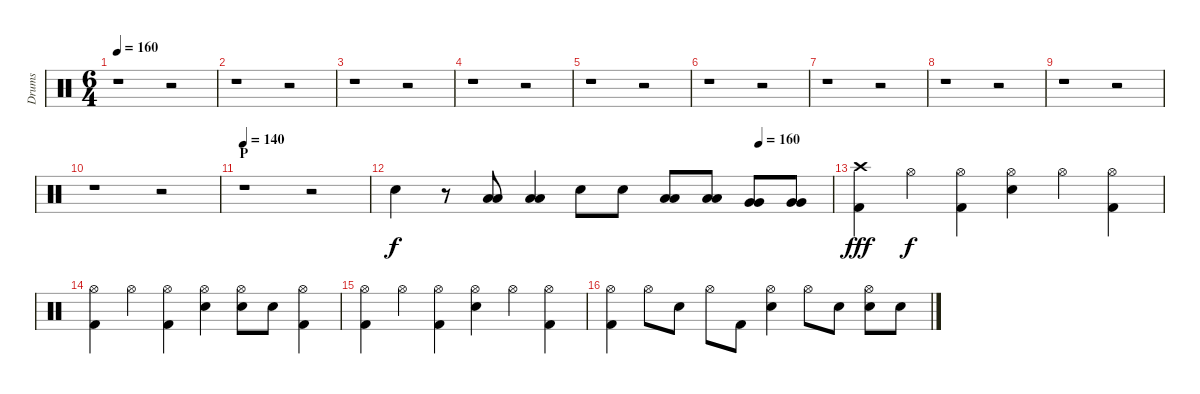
\track ("Drums" "Drums") {instrument percussion}
\staff {score}
\articulation defaults
\ts (6 4)
\tempo 160
\clef neutral
\ks c
r.1{dy f} r.2 |
r.1 r.2 |
r.1 r.2 |
r.1 r.2 |
r.1 r.2 |
r.1 r.2 |
r.1 r.2 |
r.1 r.2 |
r.1 r.2 |
r.1 r.2 |
\section ("" "P")
\tempo 140
r.1 r.2 |
\tempo (160 0.8333333333333334)
"Electric Snare (hit)".4 r.8 ("Low Tom (hit)" "Low Tom (hit)").8 ("Low Tom (hit)" "Low Tom (hit)").4 "Electric Snare (hit)".8 "Electric Snare (hit)".8 ("Low Tom (hit)" "Low Tom (hit)").8 ("Low Tom (hit)" "Low Tom (hit)").8 ("Very Low Tom (hit)" "Very Low Tom (hit)").8 ("Very Low Tom (hit)" "Very Low Tom (hit)").8 |
("Kick (hit) 2" "Crash high (hit)").4{dy fff} "Hi-Hat (open)".4{dy f} ("Kick (hit) 2" "Hi-Hat (open)").4 ("Electric Snare (hit)" "Hi-Hat (open)").4 "Hi-Hat (open)".4 ("Kick (hit) 2" "Hi-Hat (open)").4 |
("Kick (hit) 2" "Hi-Hat (open)").4 "Hi-Hat (open)".4 ("Kick (hit) 2" "Hi-Hat (open)").4 ("Electric Snare (hit)" "Hi-Hat (open)").4 ("Electric Snare (hit)" "Hi-Hat (open)").8 "Electric Snare (hit)".8 ("Kick (hit) 2" "Hi-Hat (open)").4 |
("Kick (hit) 2" "Hi-Hat (open)").4 "Hi-Hat (open)".4 ("Kick (hit) 2" "Hi-Hat (open)").4 ("Electric Snare (hit)" "Hi-Hat (open)").4 "Hi-Hat (open)".4 ("Kick (hit) 2" "Hi-Hat (open)").4 |
("Kick (hit) 2" "Hi-Hat (open)").4 "Hi-Hat (open)".8 "Electric Snare (hit)".8 "Hi-Hat (open)".8 "Kick (hit) 2".8 ("Electric Snare (hit)" "Hi-Hat (open)").4 "Hi-Hat (open)".8 "Electric Snare (hit)".8 ("Electric Snare (hit)" "Hi-Hat (open)").8 "Electric Snare (hit)".8
